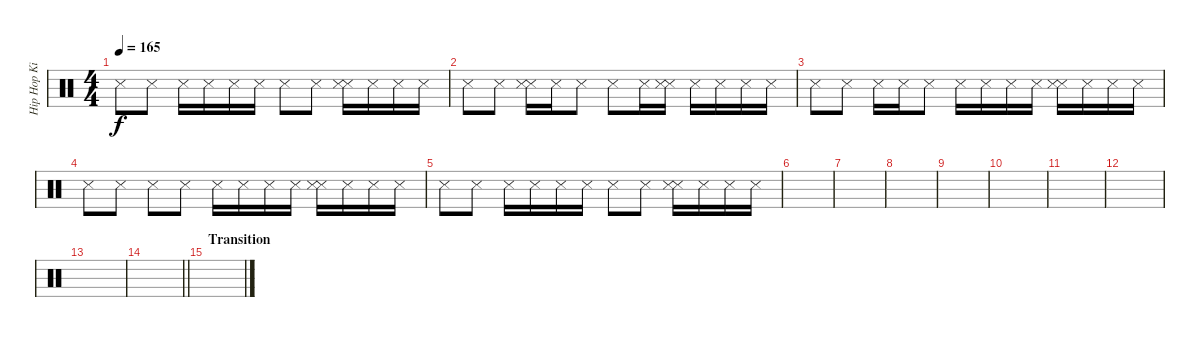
\track ("Hip Hop Kit" "Hip Hop Ki") {instrument percussion}
\staff {score}
\articulation defaults
\ts (4 4)
\tempo 165
\clef neutral
\ks c "Snare (side stick) 3".8{dy f} "Snare (side stick) 3".8 "Snare (side stick) 3".16 "Snare (side stick) 3".16 "Snare (side stick) 3".16 "Snare (side stick) 3".16 "Metronome (hit)".8 "Metronome (hit)".8
("Metronome (hit)" "Snare (side stick) 3").16 "Metronome (hit)".16 "Metronome (hit)".16 "Metronome (hit)".16 |
"Snare (side stick) 3".8 "Snare (side stick) 3".8 ("Metronome (hit)" "Snare (side stick) 3").16 "Snare (side stick) 3".16 "Snare (side stick) 3".8 "Metronome (hit)".8 "Metronome (hit)".16 ("Metronome (hit)" "Snare (side stick) 3").16 "Metronome (hit)".16 "Metronome (hit)".16 "Metronome (hit)".16 "Metronome (hit)".16 |
"Snare (side stick) 3".8 "Snare (side stick) 3".8 "Snare (side stick) 3".16 "Snare (side stick) 3".16 "Snare (side stick) 3".8 "Metronome (hit)".16 "Metronome (hit)".16 "Metronome (hit)".16 "Metronome (hit)".16 ("Metronome (hit)" "Snare (side stick) 3").16 "Metronome (hit)".16 "Metronome (hit)".16 "Metronome (hit)".16 |
"Snare (side stick) 3".8 "Snare (side stick) 3".8 "Snare (side stick) 3".8 "Snare (side stick) 3".8 "Metronome (hit)".16 "Metronome (hit)".16 "Metronome (hit)".16 "Metronome (hit)".16 ("Metronome (hit)" "Snare (side stick) 3").16 "Metronome (hit)".16 "Metronome (hit)".16 "Metronome (hit)".16 |
"Snare (side stick) 3".8 "Snare (side stick) 3".8 "Snare (side stick) 3".16 "Snare (side stick) 3".16 "Snare (side stick) 3".16 "Snare (side stick) 3".16 "Metronome (hit)".8 "Metronome (hit)".8 ("Metronome (hit)" "Snare (side stick) 3").16 "Metronome (hit)".16 "Metronome (hit)".16 "Metronome (hit)".16 |
|
|
|
|
|
|
|
|
\barLineRight lightlight
|
\section ("" "Transition")
